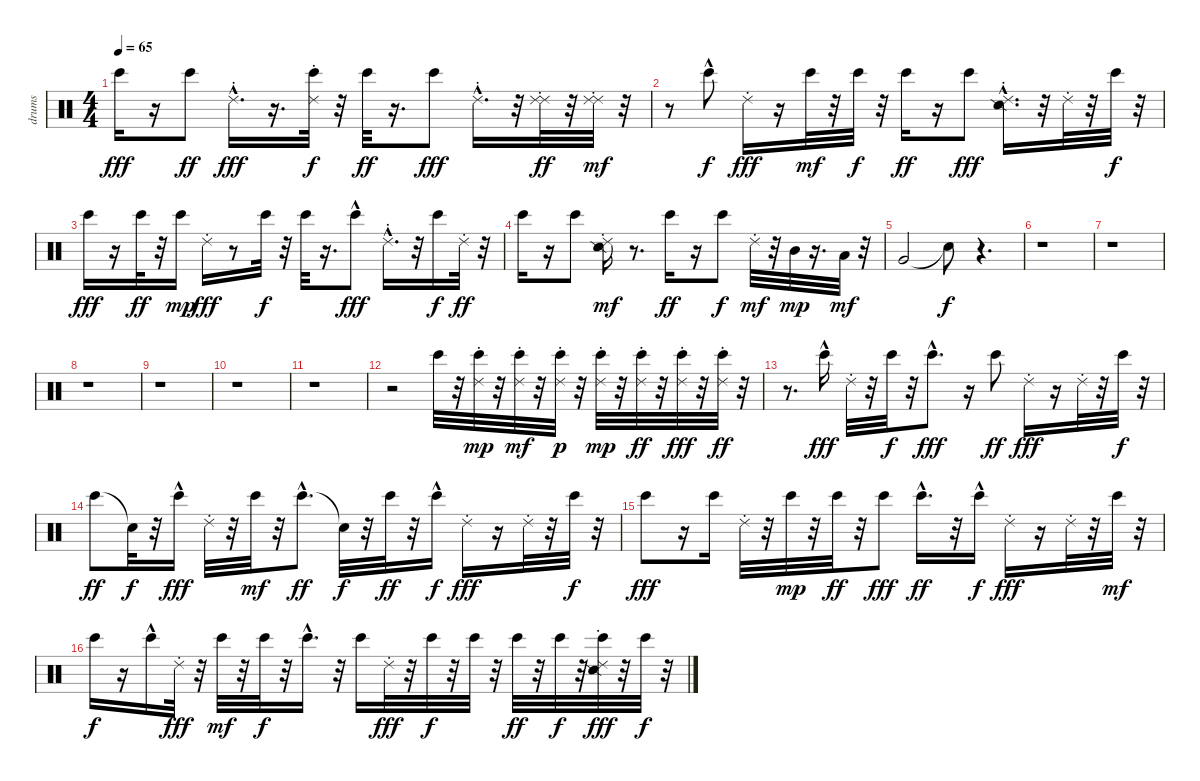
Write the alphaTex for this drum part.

\track ("drums" "drums") {instrument percussion}
\staff {score}
\articulation defaults
\ts (4 4)
\tempo 65
\clef neutral
\ks c "Bongo High (hit)".16{dy fff}
r.16 "Bongo High (hit)".8{dy ff} "Ride (choke) 2"{hac}.16{d dy fff} r.16{d} ("Ride (choke) 2" "Bongo High (hit)").32{dy f} r.32 "Bongo High (hit)".32{dy ff} r.16{d} "Bongo High (hit)".8{dy fff} "Ride (choke) 2"{hac}.16{d} r.32 ("Ride (choke) 2" "Ride (choke) 2").32{dy ff} r.32 ("Ride (choke) 2" "Ride (choke) 2").32{dy mf} r.32 |
r.8 "Bongo High (hit)"{hac}.8{dy f} "Ride (choke) 2".16{dy fff} r.16 "Bongo High (hit)".32{dy mf} r.32 "Bongo High (hit)".32{dy f} r.32 "Bongo High (hit)".16{dy ff} r.16 "Bongo High (hit)".8{dy fff} ("Snare (side stick) 2" "Ride (choke) 2"{hac}).16{d} r.32 "Ride (choke) 2".32 r.32 "Bongo High (hit)".32{dy f} r.32 |
"Bongo High (hit)".16{dy fff} r.16 "Bongo High (hit)".32{dy ff} r.32 "Bongo High (hit)".16{dy mp} "Ride (choke) 2".16{dy fff} r.8 "Bongo High (hit)".32{dy f} r.32 "Bongo High (hit)".32 r.16{d} "Bongo High (hit)"{hac}.8{dy fff} "Ride (choke) 2"{hac}.16{d} r.32 "Bongo High (hit)".16{dy f} "Ride (choke) 2".32{dy ff} r.32 |
"Bongo High (hit)".16 r.16 "Bongo High (hit)".8 ("Snare (side stick) 2" "Ride (choke) 2").16{dy mf} r.8{d} "Bongo High (hit)".16{dy ff} r.16 "Bongo High (hit)".8{dy f} "Ride (choke) 2".32{dy mf} r.32 "Mid Tom (hit)".32{dy mp} r.16{d} "Low Tom (hit)".32{dy mf} r.32 |
"Very Low Tom (hit)".2 "Snare (hit)"{t}.8{dy f} r.4{d} |
r.1 |
r.1 |
r.1 |
r.1 |
r.1 |
r.1 |
r.2 "Bongo High (hit)".32{volume 11} r.32 ("Bongo High (hit)" "Ride (choke) 2").32{dy mp} r.32 ("Bongo High (hit)" "Ride (choke) 2").32{dy mf} r.32 ("Ride (choke) 2" "Bongo High (hit)").32{dy p} r.32 ("Bongo High (hit)" "Ride (choke) 2").32{dy mp} r.32 ("Bongo High (hit)" "Ride (choke) 2").32{dy ff} r.32 ("Bongo High (hit)" "Ride (choke) 2").32{dy fff} r.32 ("Bongo High (hit)" "Ride (choke) 2").32{dy ff} r.32 |
r.8{d} "Bongo High (hit)"{hac}.16{dy fff} "Ride (choke) 2".32 r.32 "Bongo High (hit)".32{dy f} r.32 "Bongo High (hit)"{hac}.8{d dy fff} r.16 "Bongo High (hit)".8{dy ff} "Ride (choke) 2".16{dy fff} r.16 "Ride (choke) 2".32 r.32 "Bongo High (hit)".32{dy f} r.32 |
"Bongo High (hit)".8{dy ff} "Snare (hit)"{t}.32{dy f} r.32 "Bongo High (hit)"{hac}.16{dy fff} "Ride (choke) 2".32 r.32 "Bongo High (hit)".32{dy mf} r.32 "Bongo High (hit)"{hac}.8{d dy ff} "Snare (hit)"{t}.32{dy f} r.32 "Bongo High (hit)".32{dy ff} r.32 "Bongo High (hit)"{hac}.16{dy f} "Ride (choke) 2".16{dy fff} r.16 "Ride (choke) 2".32 r.32 "Bongo High (hit)".32{dy f} r.32 |
"Bongo High (hit)".8{dy fff} r.16 "Bongo High (hit)".16 "Ride (choke) 2".32 r.32 "Bongo High (hit)".32{dy mp} r.32 "Bongo High (hit)".32{dy ff} r.32 "Bongo High (hit)".8{dy fff} "Bongo High (hit)"{hac}.16{d dy ff} r.32 "Bongo High (hit)"{hac}.16{dy f} "Ride (choke) 2".16{dy fff} r.16 "Ride (choke) 2".32 r.32 "Bongo High (hit)".32{dy mf} r.32 |
"Bongo High (hit)".16{dy f} r.16 "Bongo High (hit)"{hac}.16 "Ride (choke) 2".32{dy fff} r.32 "Bongo High (hit)".32{dy mf} r.32 "Bongo High (hit)".32{dy f} r.32 "Bongo High (hit)"{hac}.16{d} r.32 "Bongo High (hit)".16 "Ride (choke) 2".32{dy fff} r.32 "Bongo High (hit)".32{dy f} r.32 "Bongo High (hit)".32 r.32 "Bongo High (hit)".32{dy ff} r.32 "Bongo High (hit)".32{dy f} r.32 ("Bongo High (hit)" "Snare (side stick) 2" "Ride (choke) 2").32{dy fff} r.32 "Bongo High (hit)".32{dy f} r.32
